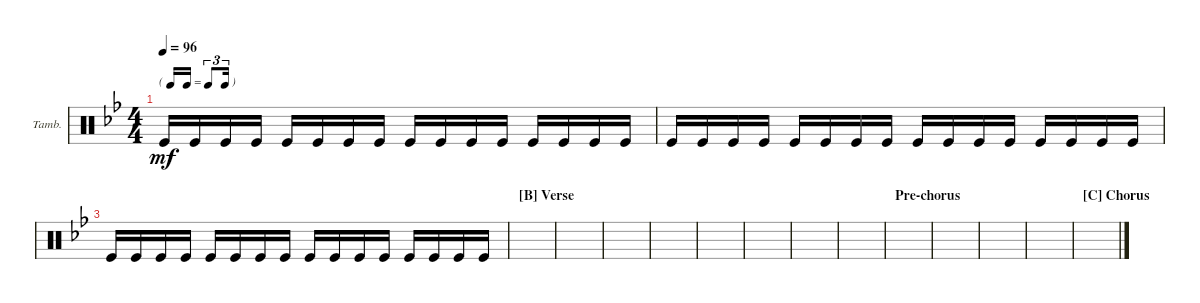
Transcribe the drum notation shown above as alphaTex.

\bracketExtendMode nobrackets
\firstSystemTrackNameOrientation horizontal
\otherSystemsTrackNameOrientation horizontal
\defaultBarNumberDisplay FirstOfSystem
\track ("Tambourine" "Tamb.") {instrument percussion}
\staff {score}
\articulation defaults
\ts (4 4)
\tf triplet16th
\tempo 96
\clef neutral
\scale
0.333333
\ks bb "Kick (hit)".16{dy mf} "Kick (hit)".16 "Kick (hit)".16 "Kick (hit)".16 "Kick (hit)".16 "Kick (hit)".16 "Kick (hit)".16 "Kick (hit)".16 "Kick (hit)".16 "Kick (hit)".16 "Kick (hit)".16 "Kick (hit)".16 "Kick (hit)".16 "Kick (hit)".16 "Kick (hit)".16 "Kick (hit)".16
|
\scale
0.333333 "Kick (hit)".16 "Kick (hit)".16 "Kick (hit)".16 "Kick (hit)".16 "Kick (hit)".16 "Kick (hit)".16 "Kick (hit)".16 "Kick (hit)".16 "Kick (hit)".16 "Kick (hit)".16 "Kick (hit)".16 "Kick (hit)".16 "Kick (hit)".16 "Kick (hit)".16 "Kick (hit)".16 "Kick (hit)".16 |
"Kick (hit)".16 "Kick (hit)".16 "Kick (hit)".16 "Kick (hit)".16 "Kick (hit)".16 "Kick (hit)".16 "Kick (hit)".16 "Kick (hit)".16 "Kick (hit)".16 "Kick (hit)".16 "Kick (hit)".16 "Kick (hit)".16 "Kick (hit)".16 "Kick (hit)".16 "Kick (hit)".16 "Kick (hit)".16 |
\section ("B" "Verse")
\scale
0.333333 |
\scale
0.333333 |
\scale
0.333333 |
\scale
0.333333 |
\scale
0.333333 |
\scale
0.333333 |
\scale
0.333333 |
\scale
0.333333 |
\section ("" "Pre-chorus")
\scale
0.333333 |
\scale
0.333333 |
\scale
0.333333 |
\scale
0.333333 |
\section ("C" "Chorus")
\scale
0.333333
